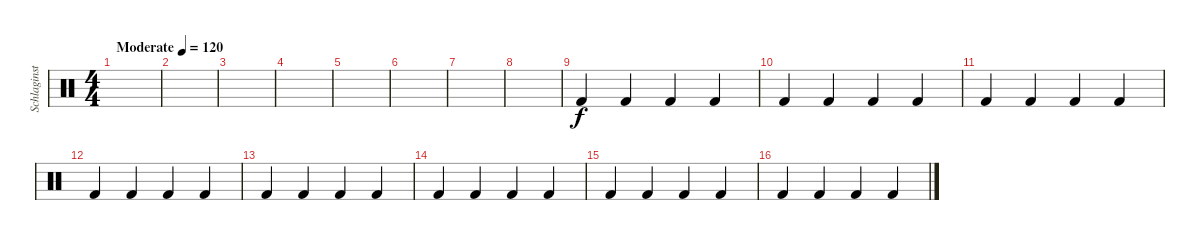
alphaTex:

\track ("Schlaginstrumente - Auswahl" "Schlaginst") {instrument percussion}
\staff {score}
\articulation defaults
\ts (4 4)
\tempo (120 "Moderate")
\clef neutral
\ks c
|
|
|
|
|
|
|
|
"Kick (hit) 2".4 "Kick (hit) 2".4 "Kick (hit) 2".4 "Kick (hit) 2".4 |
"Kick (hit) 2".4 "Kick (hit) 2".4 "Kick (hit) 2".4 "Kick (hit) 2".4 |
"Kick (hit) 2".4 "Kick (hit) 2".4 "Kick (hit) 2".4 "Kick (hit) 2".4 |
"Kick (hit) 2".4 "Kick (hit) 2".4 "Kick (hit) 2".4 "Kick (hit) 2".4 |
"Kick (hit) 2".4 "Kick (hit) 2".4 "Kick (hit) 2".4 "Kick (hit) 2".4 |
"Kick (hit) 2".4 "Kick (hit) 2".4 "Kick (hit) 2".4 "Kick (hit) 2".4 |
"Kick (hit) 2".4 "Kick (hit) 2".4 "Kick (hit) 2".4 "Kick (hit) 2".4 |
"Kick (hit) 2".4 "Kick (hit) 2".4 "Kick (hit) 2".4 "Kick (hit) 2".4
